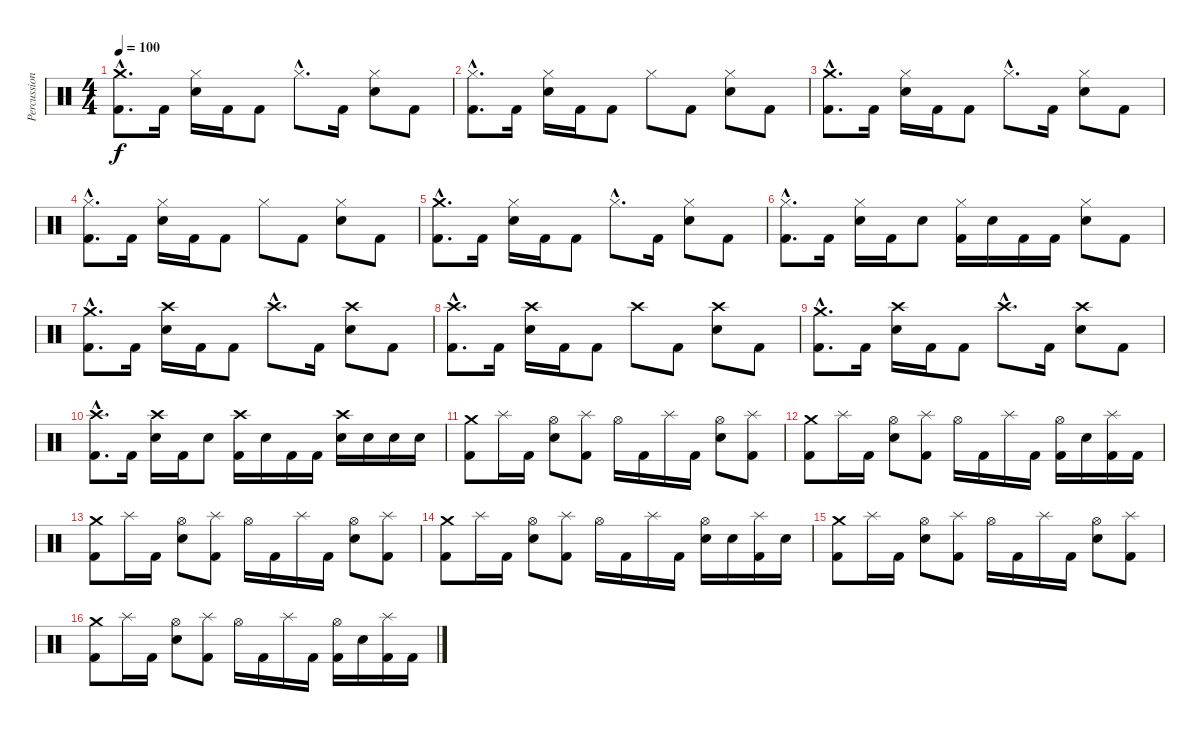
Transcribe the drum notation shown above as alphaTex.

\track ("Percussion" "Percussion") {instrument percussion}
\staff {score}
\articulation defaults
\ts (4 4)
\tempo 100
\clef neutral
\ks c
("Crash medium (hit)"{hac} "Kick (hit) 2"{hac}).8{d dy f} "Kick (hit) 2".16 ("Hi-Hat (closed)" "Electric Snare (hit)").16 "Kick (hit) 2".16 "Kick (hit) 2".8 "Hi-Hat (closed)"{hac}.8{d} "Kick (hit) 2".16 ("Hi-Hat (closed)" "Electric Snare (hit)").8 "Kick (hit) 2".8 |
("Hi-Hat (closed)"{hac} "Kick (hit) 2"{hac}).8{d} "Kick (hit) 2".16 ("Hi-Hat (closed)" "Electric Snare (hit)").16 "Kick (hit) 2".16 "Kick (hit) 2".8 "Hi-Hat (closed)".8 "Kick (hit) 2".8 ("Hi-Hat (closed)" "Electric Snare (hit)").8 "Kick (hit) 2".8 |
("Crash medium (hit)"{hac} "Kick (hit) 2"{hac}).8{d} "Kick (hit) 2".16 ("Hi-Hat (closed)" "Electric Snare (hit)").16 "Kick (hit) 2".16 "Kick (hit) 2".8 "Hi-Hat (closed)"{hac}.8{d} "Kick (hit) 2".16 ("Hi-Hat (closed)" "Electric Snare (hit)").8 "Kick (hit) 2".8 |
("Hi-Hat (closed)"{hac} "Kick (hit) 2"{hac}).8{d} "Kick (hit) 2".16 ("Hi-Hat (closed)" "Electric Snare (hit)").16 "Kick (hit) 2".16 "Kick (hit) 2".8 "Hi-Hat (closed)".8 "Kick (hit) 2".8 ("Hi-Hat (closed)" "Electric Snare (hit)").8 "Kick (hit) 2".8 |
("Crash medium (hit)"{hac} "Kick (hit) 2"{hac}).8{d} "Kick (hit) 2".16 ("Hi-Hat (closed)" "Electric Snare (hit)").16 "Kick (hit) 2".16 "Kick (hit) 2".8 "Hi-Hat (closed)"{hac}.8{d} "Kick (hit) 2".16 ("Hi-Hat (closed)" "Electric Snare (hit)").8 "Kick (hit) 2".8 |
("Hi-Hat (closed)"{hac} "Kick (hit) 2"{hac}).8{d} "Kick (hit) 2".16 ("Hi-Hat (closed)" "Electric Snare (hit)").16 "Kick (hit) 2".16 "Electric Snare (hit)".8 ("Hi-Hat (closed)" "Kick (hit) 2").16 "Electric Snare (hit)".16 "Kick (hit) 2".16 "Kick (hit) 2".16 ("Hi-Hat (closed)" "Electric Snare (hit)").8 "Kick (hit) 2".8 |
("Crash medium (hit)"{hac} "Kick (hit) 2"{hac}).8{d} "Kick (hit) 2".16 ("Crash high (hit)" "Electric Snare (hit)").16 "Kick (hit) 2".16 "Kick (hit) 2".8 "Crash high (hit)"{hac}.8{d} "Kick (hit) 2".16 ("Crash high (hit)" "Electric Snare (hit)").8 "Kick (hit) 2".8 |
("Crash high (hit)"{hac} "Kick (hit) 2"{hac}).8{d} "Kick (hit) 2".16 ("Crash high (hit)" "Electric Snare (hit)").16 "Kick (hit) 2".16 "Kick (hit) 2".8 "Crash high (hit)".8 "Kick (hit) 2".8 ("Crash high (hit)" "Electric Snare (hit)").8 "Kick (hit) 2".8 |
("Crash medium (hit)"{hac} "Kick (hit) 2"{hac}).8{d} "Kick (hit) 2".16 ("Crash high (hit)" "Electric Snare (hit)").16 "Kick (hit) 2".16 "Kick (hit) 2".8 "Crash high (hit)"{hac}.8{d} "Kick (hit) 2".16 ("Crash high (hit)" "Electric Snare (hit)").8 "Kick (hit) 2".8 |
("Crash high (hit)"{hac} "Kick (hit) 2"{hac}).8{d} "Kick (hit) 2".16 ("Crash high (hit)" "Electric Snare (hit)").16 "Kick (hit) 2".16 "Electric Snare (hit)".8 ("Crash high (hit)" "Kick (hit) 2").16 "Electric Snare (hit)".16 "Kick (hit) 2".16 "Kick (hit) 2".16 ("Crash high (hit)" "Electric Snare (hit)").16 "Electric Snare (hit)".16 "Electric Snare (hit)".16 "Electric Snare (hit)".16 |
("Crash medium (hit)" "Kick (hit) 2").8 "Splash (hit)".16 "Kick (hit) 2".16 ("Hi-Hat (open)" "Electric Snare (hit)").8 ("Splash (hit)" "Kick (hit) 2").8 "Hi-Hat (open)".16 "Kick (hit) 2".16 "Splash (hit)".16 "Kick (hit) 2".16 ("Hi-Hat (open)" "Electric Snare (hit)").8 ("Splash (hit)" "Kick (hit) 2").8 |
("Crash medium (hit)" "Kick (hit) 2").8 "Splash (hit)".16 "Kick (hit) 2".16 ("Hi-Hat (open)" "Electric Snare (hit)").8 ("Splash (hit)" "Kick (hit) 2").8 "Hi-Hat (open)".16 "Kick (hit) 2".16 "Splash (hit)".16 "Kick (hit) 2".16 ("Hi-Hat (open)" "Kick (hit) 2").16 "Electric Snare (hit)".16 ("Splash (hit)" "Kick (hit) 2").16 "Kick (hit) 2".16 |
("Crash medium (hit)" "Kick (hit) 2").8 "Splash (hit)".16 "Kick (hit) 2".16 ("Hi-Hat (open)" "Electric Snare (hit)").8 ("Splash (hit)" "Kick (hit) 2").8 "Hi-Hat (open)".16 "Kick (hit) 2".16 "Splash (hit)".16 "Kick (hit) 2".16 ("Hi-Hat (open)" "Electric Snare (hit)").8 ("Splash (hit)" "Kick (hit) 2").8 |
("Crash medium (hit)" "Kick (hit) 2").8 "Splash (hit)".16 "Kick (hit) 2".16 ("Hi-Hat (open)" "Electric Snare (hit)").8 ("Splash (hit)" "Kick (hit) 2").8 "Hi-Hat (open)".16 "Kick (hit) 2".16 "Splash (hit)".16 "Kick (hit) 2".16 ("Hi-Hat (open)" "Electric Snare (hit)").16 "Electric Snare (hit)".16 ("Splash (hit)" "Kick (hit) 2").16 "Electric Snare (hit)".16 |
("Crash medium (hit)" "Kick (hit) 2").8 "Splash (hit)".16 "Kick (hit) 2".16 ("Hi-Hat (open)" "Electric Snare (hit)").8 ("Splash (hit)" "Kick (hit) 2").8 "Hi-Hat (open)".16 "Kick (hit) 2".16 "Splash (hit)".16 "Kick (hit) 2".16 ("Hi-Hat (open)" "Electric Snare (hit)").8 ("Splash (hit)" "Kick (hit) 2").8 |
("Crash medium (hit)" "Kick (hit) 2").8 "Splash (hit)".16 "Kick (hit) 2".16 ("Hi-Hat (open)" "Electric Snare (hit)").8 ("Splash (hit)" "Kick (hit) 2").8 "Hi-Hat (open)".16 "Kick (hit) 2".16 "Splash (hit)".16 "Kick (hit) 2".16 ("Hi-Hat (open)" "Kick (hit) 2").16 "Electric Snare (hit)".16 ("Splash (hit)" "Kick (hit) 2").16 "Kick (hit) 2".16
